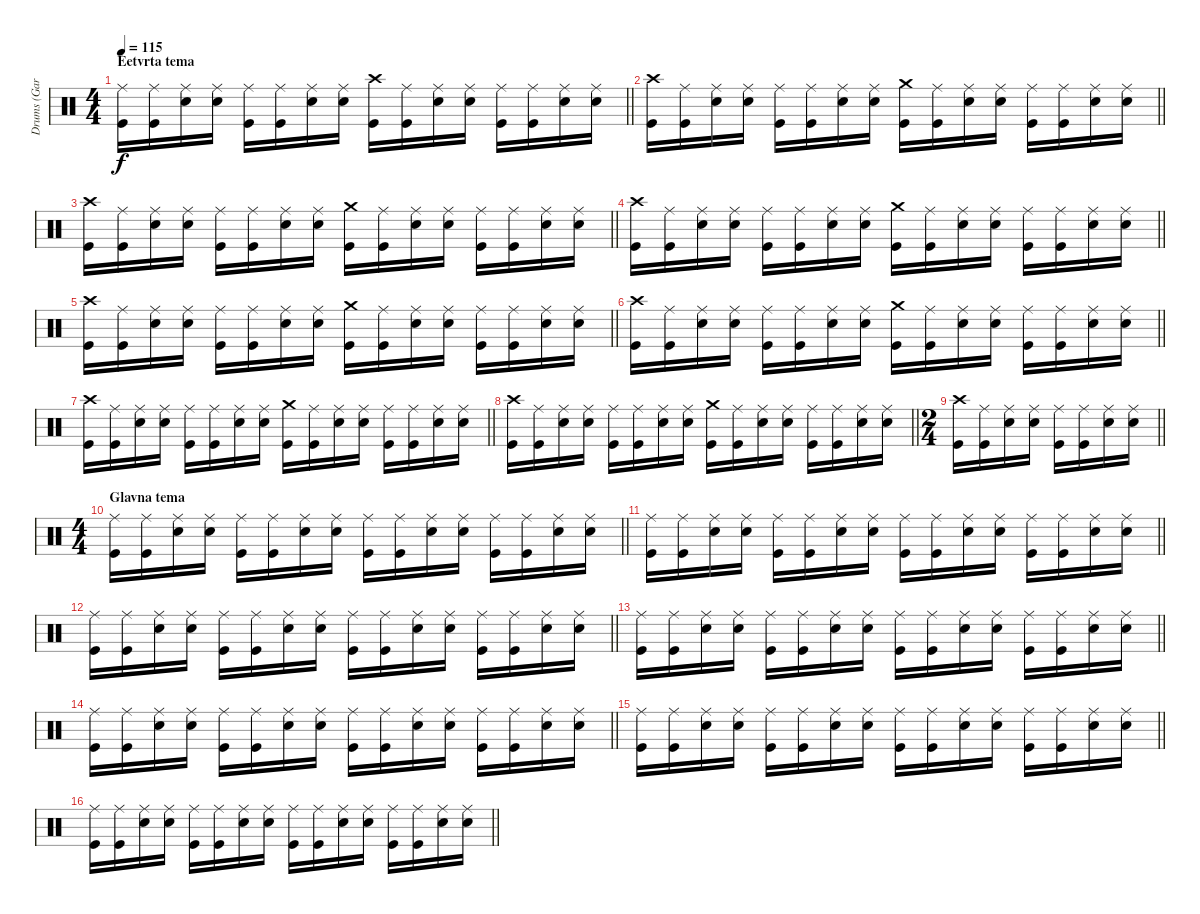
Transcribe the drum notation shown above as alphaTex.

\track ("Drums (Garabet Tavitjan)" "Drums (Gar") {instrument percussion}
\staff {score}
\articulation defaults
\ts (4 4)
\section ("" "Èetvrta tema")
\tempo 115
\clef neutral
\barLineRight lightlight
\ks c
("Ride (middle)" "Kick (hit)").16{dy f} ("Ride (middle)" "Kick (hit)").16 ("Ride (middle)" "Electric Snare (hit)").16 ("Ride (middle)" "Electric Snare (hit)").16 ("Ride (middle)" "Kick (hit)").16 ("Ride (middle)" "Kick (hit)").16 ("Ride (middle)" "Electric Snare (hit)").16 ("Ride (middle)" "Electric Snare (hit)").16 ("Crash high (hit)" "Kick (hit)").16 ("Ride (middle)" "Kick (hit)").16 ("Ride (middle)" "Electric Snare (hit)").16 ("Ride (middle)" "Electric Snare (hit)").16 ("Ride (middle)" "Kick (hit)").16 ("Ride (middle)" "Kick (hit)").16 ("Ride (middle)" "Electric Snare (hit)").16 ("Ride (middle)" "Electric Snare (hit)").16 |
\barLineRight lightlight
("Crash high (hit)" "Kick (hit)").16 ("Ride (middle)" "Kick (hit)").16 ("Ride (middle)" "Electric Snare (hit)").16 ("Ride (middle)" "Electric Snare (hit)").16 ("Ride (middle)" "Kick (hit)").16 ("Ride (middle)" "Kick (hit)").16 ("Ride (middle)" "Electric Snare (hit)").16 ("Ride (middle)" "Electric Snare (hit)").16 ("Crash medium (hit)" "Kick (hit)").16 ("Ride (middle)" "Kick (hit)").16 ("Ride (middle)" "Electric Snare (hit)").16 ("Ride (middle)" "Electric Snare (hit)").16 ("Ride (middle)" "Kick (hit)").16 ("Ride (middle)" "Kick (hit)").16 ("Ride (middle)" "Electric Snare (hit)").16 ("Ride (middle)" "Electric Snare (hit)").16 |
\barLineRight lightlight
("Crash high (hit)" "Kick (hit)").16 ("Ride (middle)" "Kick (hit)").16 ("Ride (middle)" "Electric Snare (hit)").16 ("Ride (middle)" "Electric Snare (hit)").16 ("Ride (middle)" "Kick (hit)").16 ("Ride (middle)" "Kick (hit)").16 ("Ride (middle)" "Electric Snare (hit)").16 ("Ride (middle)" "Electric Snare (hit)").16 ("Crash medium (hit)" "Kick (hit)").16 ("Ride (middle)" "Kick (hit)").16 ("Ride (middle)" "Electric Snare (hit)").16 ("Ride (middle)" "Electric Snare (hit)").16 ("Ride (middle)" "Kick (hit)").16 ("Ride (middle)" "Kick (hit)").16 ("Ride (middle)" "Electric Snare (hit)").16 ("Ride (middle)" "Electric Snare (hit)").16 |
\barLineRight lightlight
("Crash high (hit)" "Kick (hit)").16 ("Ride (middle)" "Kick (hit)").16 ("Ride (middle)" "Electric Snare (hit)").16 ("Ride (middle)" "Electric Snare (hit)").16 ("Ride (middle)" "Kick (hit)").16 ("Ride (middle)" "Kick (hit)").16 ("Ride (middle)" "Electric Snare (hit)").16 ("Ride (middle)" "Electric Snare (hit)").16 ("Crash medium (hit)" "Kick (hit)").16 ("Ride (middle)" "Kick (hit)").16 ("Ride (middle)" "Electric Snare (hit)").16 ("Ride (middle)" "Electric Snare (hit)").16 ("Ride (middle)" "Kick (hit)").16 ("Ride (middle)" "Kick (hit)").16 ("Ride (middle)" "Electric Snare (hit)").16 ("Ride (middle)" "Electric Snare (hit)").16 |
\barLineRight lightlight
("Crash high (hit)" "Kick (hit)").16 ("Ride (middle)" "Kick (hit)").16 ("Ride (middle)" "Electric Snare (hit)").16 ("Ride (middle)" "Electric Snare (hit)").16 ("Ride (middle)" "Kick (hit)").16 ("Ride (middle)" "Kick (hit)").16 ("Ride (middle)" "Electric Snare (hit)").16 ("Ride (middle)" "Electric Snare (hit)").16 ("Crash medium (hit)" "Kick (hit)").16 ("Ride (middle)" "Kick (hit)").16 ("Ride (middle)" "Electric Snare (hit)").16 ("Ride (middle)" "Electric Snare (hit)").16 ("Ride (middle)" "Kick (hit)").16 ("Ride (middle)" "Kick (hit)").16 ("Ride (middle)" "Electric Snare (hit)").16 ("Ride (middle)" "Electric Snare (hit)").16 |
\barLineRight lightlight
("Crash high (hit)" "Kick (hit)").16 ("Ride (middle)" "Kick (hit)").16 ("Ride (middle)" "Electric Snare (hit)").16 ("Ride (middle)" "Electric Snare (hit)").16 ("Ride (middle)" "Kick (hit)").16 ("Ride (middle)" "Kick (hit)").16 ("Ride (middle)" "Electric Snare (hit)").16 ("Ride (middle)" "Electric Snare (hit)").16 ("Crash medium (hit)" "Kick (hit)").16 ("Ride (middle)" "Kick (hit)").16 ("Ride (middle)" "Electric Snare (hit)").16 ("Ride (middle)" "Electric Snare (hit)").16 ("Ride (middle)" "Kick (hit)").16 ("Ride (middle)" "Kick (hit)").16 ("Ride (middle)" "Electric Snare (hit)").16 ("Ride (middle)" "Electric Snare (hit)").16 |
\barLineRight lightlight
("Crash high (hit)" "Kick (hit)").16 ("Ride (middle)" "Kick (hit)").16 ("Ride (middle)" "Electric Snare (hit)").16 ("Ride (middle)" "Electric Snare (hit)").16 ("Ride (middle)" "Kick (hit)").16 ("Ride (middle)" "Kick (hit)").16 ("Ride (middle)" "Electric Snare (hit)").16 ("Ride (middle)" "Electric Snare (hit)").16 ("Crash medium (hit)" "Kick (hit)").16 ("Ride (middle)" "Kick (hit)").16 ("Ride (middle)" "Electric Snare (hit)").16 ("Ride (middle)" "Electric Snare (hit)").16 ("Ride (middle)" "Kick (hit)").16 ("Ride (middle)" "Kick (hit)").16 ("Ride (middle)" "Electric Snare (hit)").16 ("Ride (middle)" "Electric Snare (hit)").16 |
\barLineRight lightlight
("Crash high (hit)" "Kick (hit)").16 ("Ride (middle)" "Kick (hit)").16 ("Ride (middle)" "Electric Snare (hit)").16 ("Ride (middle)" "Electric Snare (hit)").16 ("Ride (middle)" "Kick (hit)").16 ("Ride (middle)" "Kick (hit)").16 ("Ride (middle)" "Electric Snare (hit)").16 ("Ride (middle)" "Electric Snare (hit)").16 ("Crash medium (hit)" "Kick (hit)").16 ("Ride (middle)" "Kick (hit)").16 ("Ride (middle)" "Electric Snare (hit)").16 ("Ride (middle)" "Electric Snare (hit)").16 ("Ride (middle)" "Kick (hit)").16 ("Ride (middle)" "Kick (hit)").16 ("Ride (middle)" "Electric Snare (hit)").16 ("Ride (middle)" "Electric Snare (hit)").16 |
\ts (2 4)
\barLineRight lightlight
("Crash high (hit)" "Kick (hit)").16 ("Ride (middle)" "Kick (hit)").16 ("Ride (middle)" "Electric Snare (hit)").16 ("Ride (middle)" "Electric Snare (hit)").16 ("Ride (middle)" "Kick (hit)").16 ("Ride (middle)" "Kick (hit)").16 ("Ride (middle)" "Electric Snare (hit)").16 ("Ride (middle)" "Electric Snare (hit)").16 |
\ts (4 4)
\section ("" "Glavna tema")
\barLineRight lightlight
("Ride (middle)" "Kick (hit)").16 ("Ride (middle)" "Kick (hit)").16 ("Ride (middle)" "Electric Snare (hit)").16 ("Ride (middle)" "Electric Snare (hit)").16 ("Ride (middle)" "Kick (hit)").16 ("Ride (middle)" "Kick (hit)").16 ("Ride (middle)" "Electric Snare (hit)").16 ("Ride (middle)" "Electric Snare (hit)").16 ("Ride (middle)" "Kick (hit)").16 ("Ride (middle)" "Kick (hit)").16 ("Ride (middle)" "Electric Snare (hit)").16 ("Ride (middle)" "Electric Snare (hit)").16 ("Ride (middle)" "Kick (hit)").16 ("Ride (middle)" "Kick (hit)").16 ("Ride (middle)" "Electric Snare (hit)").16 ("Ride (middle)" "Electric Snare (hit)").16 |
\barLineRight lightlight
("Ride (middle)" "Kick (hit)").16 ("Ride (middle)" "Kick (hit)").16 ("Ride (middle)" "Electric Snare (hit)").16 ("Ride (middle)" "Electric Snare (hit)").16 ("Ride (middle)" "Kick (hit)").16 ("Ride (middle)" "Kick (hit)").16 ("Ride (middle)" "Electric Snare (hit)").16 ("Ride (middle)" "Electric Snare (hit)").16 ("Ride (middle)" "Kick (hit)").16 ("Ride (middle)" "Kick (hit)").16 ("Ride (middle)" "Electric Snare (hit)").16 ("Ride (middle)" "Electric Snare (hit)").16 ("Ride (middle)" "Kick (hit)").16 ("Ride (middle)" "Kick (hit)").16 ("Ride (middle)" "Electric Snare (hit)").16 ("Ride (middle)" "Electric Snare (hit)").16 |
\barLineRight lightlight
("Ride (middle)" "Kick (hit)").16 ("Ride (middle)" "Kick (hit)").16 ("Ride (middle)" "Electric Snare (hit)").16 ("Ride (middle)" "Electric Snare (hit)").16 ("Ride (middle)" "Kick (hit)").16 ("Ride (middle)" "Kick (hit)").16 ("Ride (middle)" "Electric Snare (hit)").16 ("Ride (middle)" "Electric Snare (hit)").16 ("Ride (middle)" "Kick (hit)").16 ("Ride (middle)" "Kick (hit)").16 ("Ride (middle)" "Electric Snare (hit)").16 ("Ride (middle)" "Electric Snare (hit)").16 ("Ride (middle)" "Kick (hit)").16 ("Ride (middle)" "Kick (hit)").16 ("Ride (middle)" "Electric Snare (hit)").16 ("Ride (middle)" "Electric Snare (hit)").16 |
\barLineRight lightlight
("Ride (middle)" "Kick (hit)").16 ("Ride (middle)" "Kick (hit)").16 ("Ride (middle)" "Electric Snare (hit)").16 ("Ride (middle)" "Electric Snare (hit)").16 ("Ride (middle)" "Kick (hit)").16 ("Ride (middle)" "Kick (hit)").16 ("Ride (middle)" "Electric Snare (hit)").16 ("Ride (middle)" "Electric Snare (hit)").16 ("Ride (middle)" "Kick (hit)").16 ("Ride (middle)" "Kick (hit)").16 ("Ride (middle)" "Electric Snare (hit)").16 ("Ride (middle)" "Electric Snare (hit)").16 ("Ride (middle)" "Kick (hit)").16 ("Ride (middle)" "Kick (hit)").16 ("Ride (middle)" "Electric Snare (hit)").16 ("Ride (middle)" "Electric Snare (hit)").16 |
\barLineRight lightlight
("Ride (middle)" "Kick (hit)").16 ("Ride (middle)" "Kick (hit)").16 ("Ride (middle)" "Electric Snare (hit)").16 ("Ride (middle)" "Electric Snare (hit)").16 ("Ride (middle)" "Kick (hit)").16 ("Ride (middle)" "Kick (hit)").16 ("Ride (middle)" "Electric Snare (hit)").16 ("Ride (middle)" "Electric Snare (hit)").16 ("Ride (middle)" "Kick (hit)").16 ("Ride (middle)" "Kick (hit)").16 ("Ride (middle)" "Electric Snare (hit)").16 ("Ride (middle)" "Electric Snare (hit)").16 ("Ride (middle)" "Kick (hit)").16 ("Ride (middle)" "Kick (hit)").16 ("Ride (middle)" "Electric Snare (hit)").16 ("Ride (middle)" "Electric Snare (hit)").16 |
\barLineRight lightlight
("Ride (middle)" "Kick (hit)").16 ("Ride (middle)" "Kick (hit)").16 ("Ride (middle)" "Electric Snare (hit)").16 ("Ride (middle)" "Electric Snare (hit)").16 ("Ride (middle)" "Kick (hit)").16 ("Ride (middle)" "Kick (hit)").16 ("Ride (middle)" "Electric Snare (hit)").16 ("Ride (middle)" "Electric Snare (hit)").16 ("Ride (middle)" "Kick (hit)").16 ("Ride (middle)" "Kick (hit)").16 ("Ride (middle)" "Electric Snare (hit)").16 ("Ride (middle)" "Electric Snare (hit)").16 ("Ride (middle)" "Kick (hit)").16 ("Ride (middle)" "Kick (hit)").16 ("Ride (middle)" "Electric Snare (hit)").16 ("Ride (middle)" "Electric Snare (hit)").16 |
\barLineRight lightlight
("Ride (middle)" "Kick (hit)").16 ("Ride (middle)" "Kick (hit)").16 ("Ride (middle)" "Electric Snare (hit)").16 ("Ride (middle)" "Electric Snare (hit)").16 ("Ride (middle)" "Kick (hit)").16 ("Ride (middle)" "Kick (hit)").16 ("Ride (middle)" "Electric Snare (hit)").16 ("Ride (middle)" "Electric Snare (hit)").16 ("Ride (middle)" "Kick (hit)").16 ("Ride (middle)" "Kick (hit)").16 ("Ride (middle)" "Electric Snare (hit)").16 ("Ride (middle)" "Electric Snare (hit)").16 ("Ride (middle)" "Kick (hit)").16 ("Ride (middle)" "Kick (hit)").16 ("Ride (middle)" "Electric Snare (hit)").16 ("Ride (middle)" "Electric Snare (hit)").16
